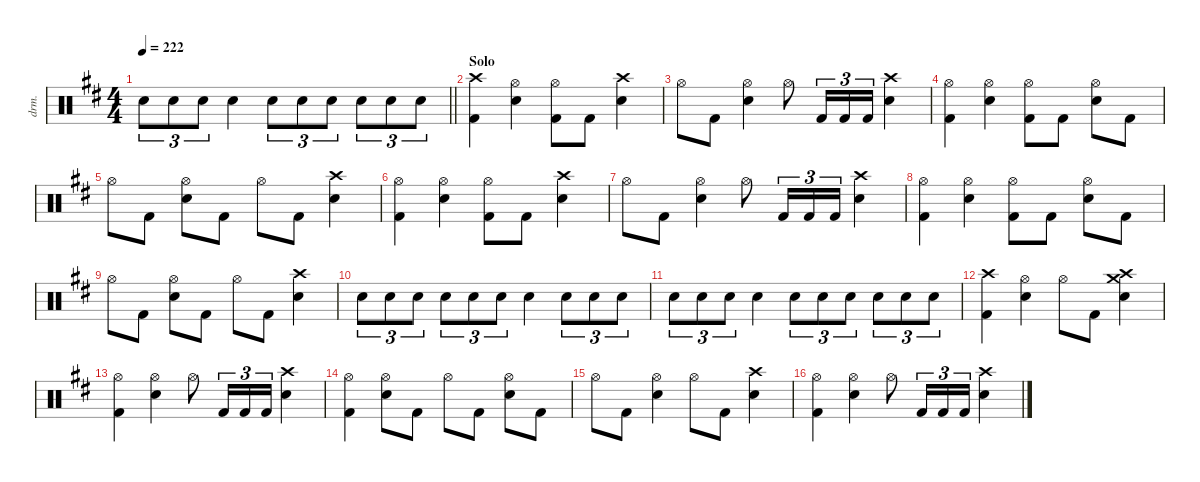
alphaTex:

\defaultSystemsLayout 4
\hideDynamics
\bracketExtendMode nobrackets
\otherSystemsTrackNameOrientation horizontal
\track ("Lars Ulrich" "drm.") {defaultSystemsLayout 4 instrument percussion}
\staff {score}
\articulation defaults
\ts (4 4)
\tempo 222
\clef neutral
\barLineRight lightlight
\ks bminor "Snare (hit) 2"{acc forcenatural}.8{tu (3 2) dy f} "Snare (hit) 2"{acc forcenatural}.8{tu (3 2)} "Snare (hit) 2"{acc forcenatural}.8{tu (3 2)} "Snare (hit) 2"{acc forcenatural}.4 "Snare (hit) 2"{acc forcenatural}.8{tu (3 2)} "Snare (hit) 2"{acc forcenatural}.8{tu (3 2)} "Snare (hit) 2"{acc forcenatural}.8{tu (3 2)} "Snare (hit) 2"{acc forcenatural}.8{tu (3 2)} "Snare (hit) 2"{acc forcenatural}.8{tu (3 2)} "Snare (hit) 2"{acc forcenatural}.8{tu (3 2)}
|
\section ("" "Solo")
("Crash high (hit)"{acc forcenatural} "Kick (hit) 2"{acc forcenatural}).4 ("Hi-Hat (open)"{acc forcenatural} "Snare (hit) 2"{acc forcenatural}).4 ("Hi-Hat (open)"{acc forcenatural} "Kick (hit) 2"{acc forcenatural}).8 "Kick (hit) 2"{acc forcenatural}.8 ("Crash high (hit)"{acc forcenatural} "Snare (hit) 2"{acc forcenatural}).4 |
"Hi-Hat (open)"{acc forcenatural}.8 "Kick (hit) 2"{acc forcenatural}.8 ("Hi-Hat (open)"{acc forcenatural} "Snare (hit) 2"{acc forcenatural}).4 "Hi-Hat (open)"{acc forcenatural}.8 "Kick (hit) 2"{acc forcenatural}.16{tu (3 2)} "Kick (hit) 2"{acc forcenatural}.16{tu (3 2)} "Kick (hit) 2"{acc forcenatural}.16{tu (3 2)} ("Crash high (hit)"{acc forcenatural} "Snare (hit) 2"{acc forcenatural}).4 |
("Hi-Hat (open)"{acc forcenatural} "Kick (hit) 2"{acc forcenatural}).4 ("Hi-Hat (open)"{acc forcenatural} "Snare (hit) 2"{acc forcenatural}).4 ("Hi-Hat (open)"{acc forcenatural} "Kick (hit) 2"{acc forcenatural}).8 "Kick (hit) 2"{acc forcenatural}.8 ("Hi-Hat (open)"{acc forcenatural} "Snare (hit) 2"{acc forcenatural}).8 "Kick (hit) 2"{acc forcenatural}.8 |
"Hi-Hat (open)"{acc forcenatural}.8 "Kick (hit) 2"{acc forcenatural}.8 ("Hi-Hat (open)"{acc forcenatural} "Snare (hit) 2"{acc forcenatural}).8 "Kick (hit) 2"{acc forcenatural}.8 "Hi-Hat (open)"{acc forcenatural}.8 "Kick (hit) 2"{acc forcenatural}.8 ("Crash high (hit)"{acc forcenatural} "Snare (hit) 2"{acc forcenatural}).4 |
("Hi-Hat (open)"{acc forcenatural} "Kick (hit) 2"{acc forcenatural}).4 ("Hi-Hat (open)"{acc forcenatural} "Snare (hit) 2"{acc forcenatural}).4 ("Hi-Hat (open)"{acc forcenatural} "Kick (hit) 2"{acc forcenatural}).8 "Kick (hit) 2"{acc forcenatural}.8 ("Crash high (hit)"{acc forcenatural} "Snare (hit) 2"{acc forcenatural}).4 |
"Hi-Hat (open)"{acc forcenatural}.8 "Kick (hit) 2"{acc forcenatural}.8 ("Hi-Hat (open)"{acc forcenatural} "Snare (hit) 2"{acc forcenatural}).4 "Hi-Hat (open)"{acc forcenatural}.8 "Kick (hit) 2"{acc forcenatural}.16{tu (3 2)} "Kick (hit) 2"{acc forcenatural}.16{tu (3 2)} "Kick (hit) 2"{acc forcenatural}.16{tu (3 2)} ("Crash high (hit)"{acc forcenatural} "Snare (hit) 2"{acc forcenatural}).4 |
("Hi-Hat (open)"{acc forcenatural} "Kick (hit) 2"{acc forcenatural}).4 ("Hi-Hat (open)"{acc forcenatural} "Snare (hit) 2"{acc forcenatural}).4 ("Hi-Hat (open)"{acc forcenatural} "Kick (hit) 2"{acc forcenatural}).8 "Kick (hit) 2"{acc forcenatural}.8 ("Hi-Hat (open)"{acc forcenatural} "Snare (hit) 2"{acc forcenatural}).8 "Kick (hit) 2"{acc forcenatural}.8 |
"Hi-Hat (open)"{acc forcenatural}.8 "Kick (hit) 2"{acc forcenatural}.8 ("Hi-Hat (open)"{acc forcenatural} "Snare (hit) 2"{acc forcenatural}).8 "Kick (hit) 2"{acc forcenatural}.8 "Hi-Hat (open)"{acc forcenatural}.8 "Kick (hit) 2"{acc forcenatural}.8 ("Crash high (hit)"{acc forcenatural} "Snare (hit) 2"{acc forcenatural}).4 |
"Snare (hit) 2"{acc forcenatural}.8{tu (3 2)} "Snare (hit) 2"{acc forcenatural}.8{tu (3 2)} "Snare (hit) 2"{acc forcenatural}.8{tu (3 2)} "Snare (hit) 2"{acc forcenatural}.8{tu (3 2)} "Snare (hit) 2"{acc forcenatural}.8{tu (3 2)} "Snare (hit) 2"{acc forcenatural}.8{tu (3 2)} "Snare (hit) 2"{acc forcenatural}.4 "Snare (hit) 2"{acc forcenatural}.8{tu (3 2)} "Snare (hit) 2"{acc forcenatural}.8{tu (3 2)} "Snare (hit) 2"{acc forcenatural}.8{tu (3 2)} |
"Snare (hit) 2"{acc forcenatural}.8{tu (3 2)} "Snare (hit) 2"{acc forcenatural}.8{tu (3 2)} "Snare (hit) 2"{acc forcenatural}.8{tu (3 2)} "Snare (hit) 2"{acc forcenatural}.4 "Snare (hit) 2"{acc forcenatural}.8{tu (3 2)} "Snare (hit) 2"{acc forcenatural}.8{tu (3 2)} "Snare (hit) 2"{acc forcenatural}.8{tu (3 2)} "Snare (hit) 2"{acc forcenatural}.8{tu (3 2)} "Snare (hit) 2"{acc forcenatural}.8{tu (3 2)} "Snare (hit) 2"{acc forcenatural}.8{tu (3 2)} |
("Crash high (hit)"{acc forcenatural} "Kick (hit) 2"{acc forcenatural}).4 ("Hi-Hat (open)"{acc forcenatural} "Snare (hit) 2"{acc forcenatural}).4 "Hi-Hat (open)"{acc forcenatural}.8 "Kick (hit) 2"{acc forcenatural}.8 ("Crash high (hit)"{acc forcenatural} "Crash medium (hit)"{acc forcenatural} "Snare (hit) 2"{acc forcenatural}).4 |
("Hi-Hat (open)"{acc forcenatural} "Kick (hit) 2"{acc forcenatural}).4 ("Hi-Hat (open)"{acc forcenatural} "Snare (hit) 2"{acc forcenatural}).4 "Hi-Hat (open)"{acc forcenatural}.8 "Kick (hit) 2"{acc forcenatural}.16{tu (3 2)} "Kick (hit) 2"{acc forcenatural}.16{tu (3 2)} "Kick (hit) 2"{acc forcenatural}.16{tu (3 2)} ("Crash high (hit)"{acc forcenatural} "Snare (hit) 2"{acc forcenatural}).4 |
("Hi-Hat (open)"{acc forcenatural} "Kick (hit) 2"{acc forcenatural}).4 ("Hi-Hat (open)"{acc forcenatural} "Snare (hit) 2"{acc forcenatural}).8 "Kick (hit) 2"{acc forcenatural}.8 "Hi-Hat (open)"{acc forcenatural}.8 "Kick (hit) 2"{acc forcenatural}.8 ("Hi-Hat (open)"{acc forcenatural} "Snare (hit) 2"{acc forcenatural}).8 "Kick (hit) 2"{acc forcenatural}.8 |
"Hi-Hat (open)"{acc forcenatural}.8 "Kick (hit) 2"{acc forcenatural}.8 ("Hi-Hat (open)"{acc forcenatural} "Snare (hit) 2"{acc forcenatural}).4 "Hi-Hat (open)"{acc forcenatural}.8 "Kick (hit) 2"{acc forcenatural}.8 ("Crash high (hit)"{acc forcenatural} "Snare (hit) 2"{acc forcenatural}).4 |
("Hi-Hat (open)"{acc forcenatural} "Kick (hit) 2"{acc forcenatural}).4 ("Hi-Hat (open)"{acc forcenatural} "Snare (hit) 2"{acc forcenatural}).4 "Hi-Hat (open)"{acc forcenatural}.8 "Kick (hit) 2"{acc forcenatural}.16{tu (3 2)} "Kick (hit) 2"{acc forcenatural}.16{tu (3 2)} "Kick (hit) 2"{acc forcenatural}.16{tu (3 2)} ("Crash high (hit)"{acc forcenatural} "Snare (hit) 2"{acc forcenatural}).4
